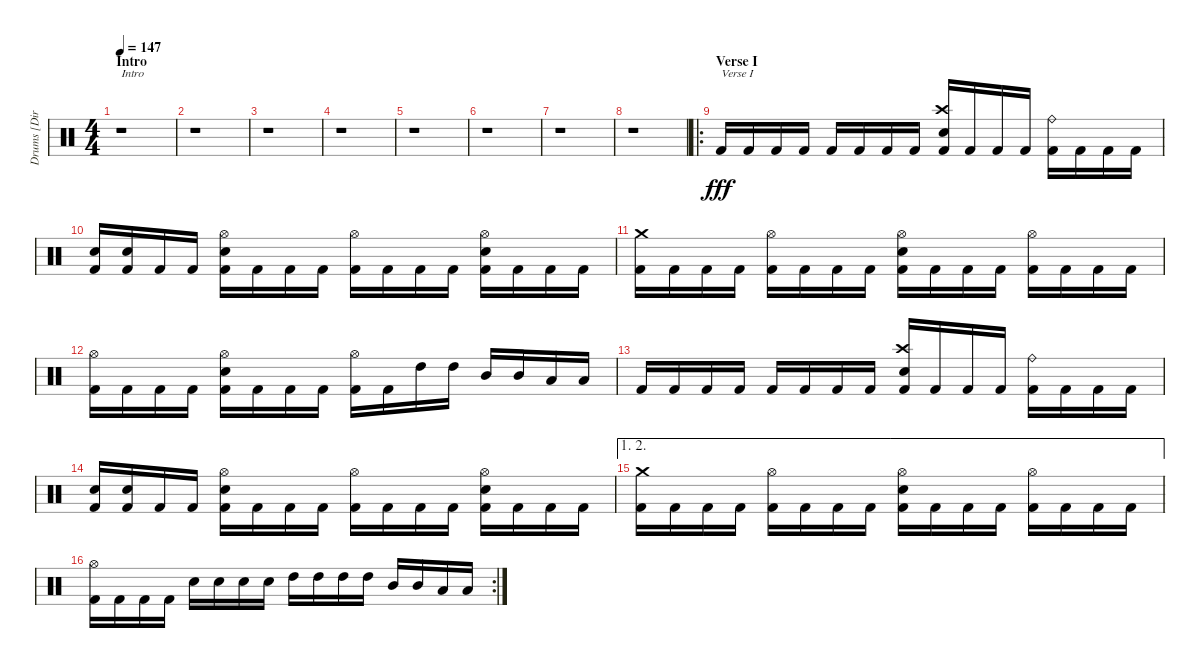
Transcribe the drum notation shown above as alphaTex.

\track ("Drums [Dirge Rep]" "Drums [Dir") {instrument percussion}
\staff {score}
\articulation defaults
\ts (4 4)
\section ("" "Intro")
\tempo 147
\clef neutral
\ks c
r.1{txt "Intro" dy fff} |
r.1 |
r.1 |
r.1 |
r.1 |
r.1 |
r.1 |
r.1 |
\ro
\section ("" "Verse I")
"Kick (hit) 2".16{txt "Verse I"} "Kick (hit) 2".16 "Kick (hit) 2".16 "Kick (hit) 2".16 "Kick (hit) 2".16 "Kick (hit) 2".16 "Kick (hit) 2".16 "Kick (hit) 2".16 ("Crash high (hit)" "Electric Snare (hit)" "Kick (hit) 2").16 "Kick (hit) 2".16 "Kick (hit) 2".16 "Kick (hit) 2".16 ("Ride (bell)" "Kick (hit) 2").16 "Kick (hit) 2".16 "Kick (hit) 2".16 "Kick (hit) 2".16 |
("Electric Snare (hit)" "Kick (hit) 2").16 ("Electric Snare (hit)" "Kick (hit) 2").16 "Kick (hit) 2".16 "Kick (hit) 2".16 ("Hi-Hat (open)" "Electric Snare (hit)" "Kick (hit) 2").16 "Kick (hit) 2".16 "Kick (hit) 2".16 "Kick (hit) 2".16 ("Hi-Hat (open)" "Kick (hit) 2").16 "Kick (hit) 2".16 "Kick (hit) 2".16 "Kick (hit) 2".16 ("Hi-Hat (open)" "Electric Snare (hit)" "Kick (hit) 2").16 "Kick (hit) 2".16 "Kick (hit) 2".16 "Kick (hit) 2".16 |
("Crash medium (hit)" "Kick (hit) 2").16 "Kick (hit) 2".16 "Kick (hit) 2".16 "Kick (hit) 2".16 ("Hi-Hat (open)" "Kick (hit) 2").16 "Kick (hit) 2".16 "Kick (hit) 2".16 "Kick (hit) 2".16 ("Hi-Hat (open)" "Electric Snare (hit)" "Kick (hit) 2").16 "Kick (hit) 2".16 "Kick (hit) 2".16 "Kick (hit) 2".16 ("Hi-Hat (open)" "Kick (hit) 2").16 "Kick (hit) 2".16 "Kick (hit) 2".16 "Kick (hit) 2".16 |
("Hi-Hat (open)" "Kick (hit) 2").16 "Kick (hit) 2".16 "Kick (hit) 2".16 "Kick (hit) 2".16 ("Hi-Hat (open)" "Electric Snare (hit)" "Kick (hit) 2").16 "Kick (hit) 2".16 "Kick (hit) 2".16 "Kick (hit) 2".16 ("Hi-Hat (open)" "Kick (hit) 2").16 "Kick (hit) 2".16 "High Tom (hit)".16 "High Tom (hit)".16 "Mid Tom (hit)".16 "Mid Tom (hit)".16 "Low Tom (hit)".16 "Low Tom (hit)".16 |
"Kick (hit) 2".16 "Kick (hit) 2".16 "Kick (hit) 2".16 "Kick (hit) 2".16 "Kick (hit) 2".16 "Kick (hit) 2".16 "Kick (hit) 2".16 "Kick (hit) 2".16 ("Crash high (hit)" "Electric Snare (hit)" "Kick (hit) 2").16 "Kick (hit) 2".16 "Kick (hit) 2".16 "Kick (hit) 2".16 ("Ride (bell)" "Kick (hit) 2").16 "Kick (hit) 2".16 "Kick (hit) 2".16 "Kick (hit) 2".16 |
("Electric Snare (hit)" "Kick (hit) 2").16 ("Electric Snare (hit)" "Kick (hit) 2").16 "Kick (hit) 2".16 "Kick (hit) 2".16 ("Hi-Hat (open)" "Electric Snare (hit)" "Kick (hit) 2").16 "Kick (hit) 2".16 "Kick (hit) 2".16 "Kick (hit) 2".16 ("Hi-Hat (open)" "Kick (hit) 2").16 "Kick (hit) 2".16 "Kick (hit) 2".16 "Kick (hit) 2".16 ("Hi-Hat (open)" "Electric Snare (hit)" "Kick (hit) 2").16 "Kick (hit) 2".16 "Kick (hit) 2".16 "Kick (hit) 2".16 |
\ae (1 2)
("Crash medium (hit)" "Kick (hit) 2").16 "Kick (hit) 2".16 "Kick (hit) 2".16 "Kick (hit) 2".16 ("Hi-Hat (open)" "Kick (hit) 2").16 "Kick (hit) 2".16 "Kick (hit) 2".16 "Kick (hit) 2".16 ("Hi-Hat (open)" "Electric Snare (hit)" "Kick (hit) 2").16 "Kick (hit) 2".16 "Kick (hit) 2".16 "Kick (hit) 2".16 ("Hi-Hat (open)" "Kick (hit) 2").16 "Kick (hit) 2".16 "Kick (hit) 2".16 "Kick (hit) 2".16 |
\rc 2
("Hi-Hat (open)" "Kick (hit) 2").16 "Kick (hit) 2".16 "Kick (hit) 2".16 "Kick (hit) 2".16 "Electric Snare (hit)".16 "Electric Snare (hit)".16 "Electric Snare (hit)".16 "Electric Snare (hit)".16 "High Tom (hit)".16 "High Tom (hit)".16 "High Tom (hit)".16 "High Tom (hit)".16 "Mid Tom (hit)".16 "Mid Tom (hit)".16 "Low Tom (hit)".16 "Low Tom (hit)".16
